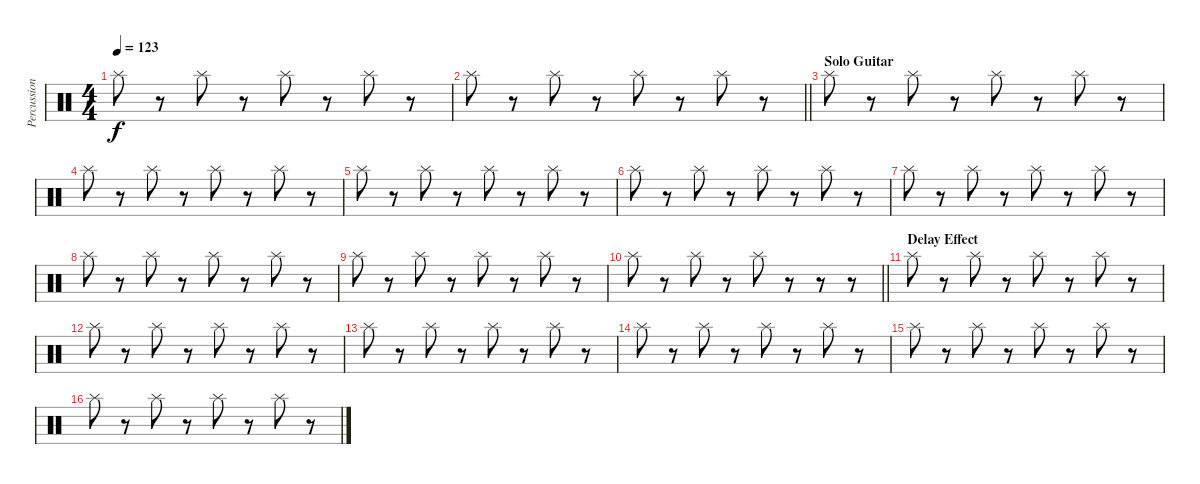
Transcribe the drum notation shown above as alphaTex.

\track ("Percussion 2" "Percussion") {instrument percussion}
\staff {score}
\articulation defaults
\ts (4 4)
\tempo 123
\clef neutral
\ks c "Splash (hit)".8{dy f}
r.8 "Splash (hit)".8 r.8 "Splash (hit)".8 r.8 "Splash (hit)".8 r.8 |
\barLineRight lightlight "Splash (hit)".8
r.8 "Splash (hit)".8 r.8 "Splash (hit)".8 r.8 "Splash (hit)".8 r.8 |
\section ("" "Solo Guitar")
"Splash (hit)".8 r.8 "Splash (hit)".8 r.8 "Splash (hit)".8 r.8 "Splash (hit)".8 r.8 |
"Splash (hit)".8 r.8 "Splash (hit)".8 r.8 "Splash (hit)".8 r.8 "Splash (hit)".8 r.8 |
"Splash (hit)".8 r.8 "Splash (hit)".8 r.8 "Splash (hit)".8 r.8 "Splash (hit)".8 r.8 |
"Splash (hit)".8 r.8 "Splash (hit)".8 r.8 "Splash (hit)".8 r.8 "Splash (hit)".8 r.8 |
"Splash (hit)".8 r.8 "Splash (hit)".8 r.8 "Splash (hit)".8 r.8 "Splash (hit)".8 r.8 |
"Splash (hit)".8 r.8 "Splash (hit)".8 r.8 "Splash (hit)".8 r.8 "Splash (hit)".8 r.8 |
"Splash (hit)".8 r.8 "Splash (hit)".8 r.8 "Splash (hit)".8 r.8 "Splash (hit)".8 r.8 |
\barLineRight lightlight "Splash (hit)".8
r.8 "Splash (hit)".8 r.8 "Splash (hit)".8 r.8 r.8 r.8 |
\section ("" "Delay Effect")
"Splash (hit)".8 r.8 "Splash (hit)".8 r.8 "Splash (hit)".8 r.8 "Splash (hit)".8 r.8 |
"Splash (hit)".8 r.8 "Splash (hit)".8 r.8 "Splash (hit)".8 r.8 "Splash (hit)".8 r.8 |
"Splash (hit)".8 r.8 "Splash (hit)".8 r.8 "Splash (hit)".8 r.8 "Splash (hit)".8 r.8 |
"Splash (hit)".8 r.8 "Splash (hit)".8 r.8 "Splash (hit)".8 r.8 "Splash (hit)".8 r.8 |
"Splash (hit)".8 r.8 "Splash (hit)".8 r.8 "Splash (hit)".8 r.8 "Splash (hit)".8 r.8 |
"Splash (hit)".8 r.8 "Splash (hit)".8 r.8 "Splash (hit)".8 r.8 "Splash (hit)".8 r.8
